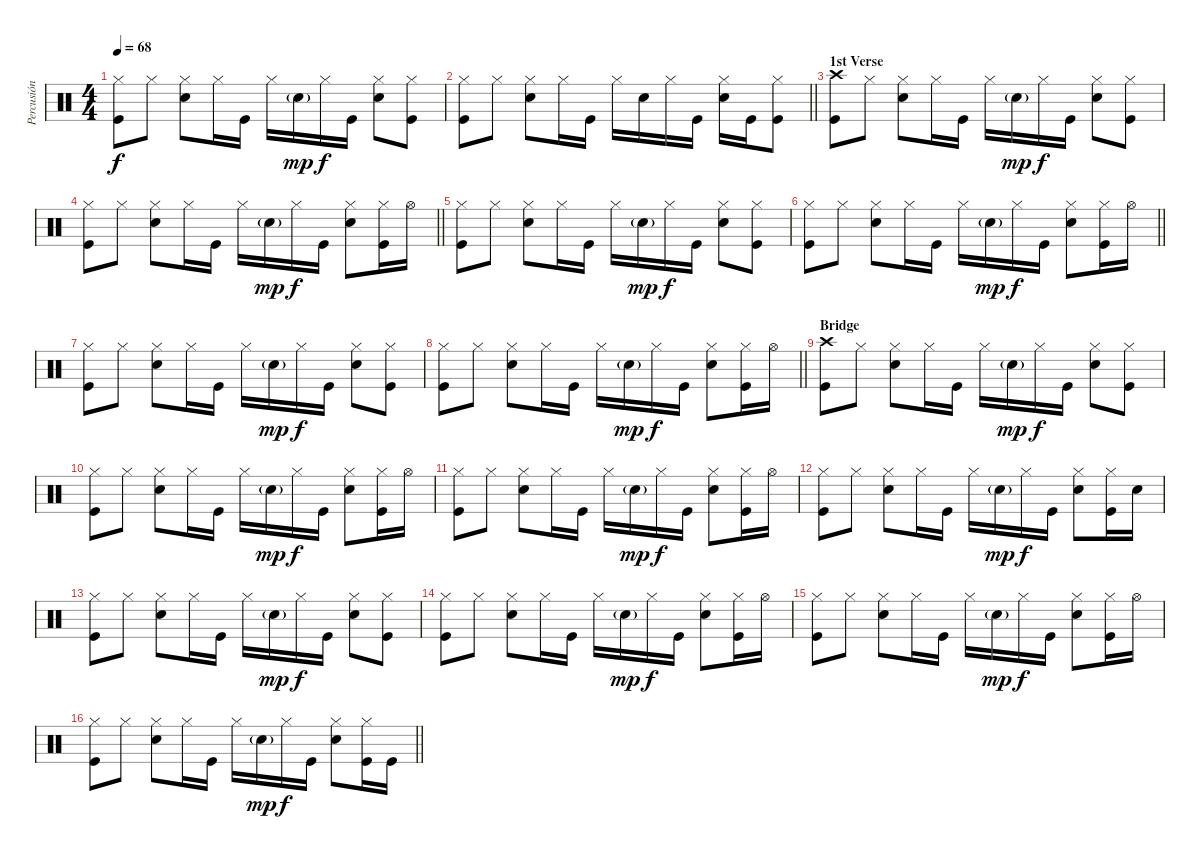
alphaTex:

\track ("Percusión" "Percusión") {instrument percussion}
\staff {score}
\articulation defaults
\ts (4 4)
\tempo 68
\clef neutral
\ks c
("Hi-Hat (closed)" "Kick (hit)").8{dy f} "Hi-Hat (closed)".8 ("Hi-Hat (closed)" "Snare (hit) 2").8 "Hi-Hat (closed)".16 "Kick (hit)".16 "Hi-Hat (closed)".16 "Snare (hit) 2"{g}.16{dy mp} "Hi-Hat (closed)".16{dy f} "Kick (hit)".16 ("Hi-Hat (closed)" "Snare (hit) 2").8 ("Hi-Hat (closed)" "Kick (hit)").8 |
\barLineRight lightlight
("Hi-Hat (closed)" "Kick (hit)").8 "Hi-Hat (closed)".8 ("Hi-Hat (closed)" "Snare (hit) 2").8 "Hi-Hat (closed)".16 "Kick (hit)".16 "Hi-Hat (closed)".16 "Snare (hit) 2".16 "Hi-Hat (closed)".16 "Kick (hit)".16 ("Hi-Hat (closed)" "Snare (hit) 2").16 "Kick (hit)".16 ("Hi-Hat (closed)" "Kick (hit)").8 |
\section ("" "1st Verse")
("Crash high (hit)" "Kick (hit)").8 "Hi-Hat (closed)".8 ("Hi-Hat (closed)" "Snare (hit) 2").8 "Hi-Hat (closed)".16 "Kick (hit)".16 "Hi-Hat (closed)".16 "Snare (hit) 2"{g}.16{dy mp} "Hi-Hat (closed)".16{dy f} "Kick (hit)".16 ("Hi-Hat (closed)" "Snare (hit) 2").8 ("Hi-Hat (closed)" "Kick (hit)").8 |
\barLineRight lightlight
("Hi-Hat (closed)" "Kick (hit)").8 "Hi-Hat (closed)".8 ("Hi-Hat (closed)" "Snare (hit) 2").8 "Hi-Hat (closed)".16 "Kick (hit)".16 "Hi-Hat (closed)".16 "Snare (hit) 2"{g}.16{dy mp} "Hi-Hat (closed)".16{dy f} "Kick (hit)".16 ("Hi-Hat (closed)" "Snare (hit) 2").8 ("Hi-Hat (closed)" "Kick (hit)").16 "Hi-Hat (open)".16 |
("Hi-Hat (closed)" "Kick (hit)").8 "Hi-Hat (closed)".8 ("Hi-Hat (closed)" "Snare (hit) 2").8 "Hi-Hat (closed)".16 "Kick (hit)".16 "Hi-Hat (closed)".16 "Snare (hit) 2"{g}.16{dy mp} "Hi-Hat (closed)".16{dy f} "Kick (hit)".16 ("Hi-Hat (closed)" "Snare (hit) 2").8 ("Hi-Hat (closed)" "Kick (hit)").8 |
\barLineRight lightlight
("Hi-Hat (closed)" "Kick (hit)").8 "Hi-Hat (closed)".8 ("Hi-Hat (closed)" "Snare (hit) 2").8 "Hi-Hat (closed)".16 "Kick (hit)".16 "Hi-Hat (closed)".16 "Snare (hit) 2"{g}.16{dy mp} "Hi-Hat (closed)".16{dy f} "Kick (hit)".16 ("Hi-Hat (closed)" "Snare (hit) 2").8 ("Hi-Hat (closed)" "Kick (hit)").16 "Hi-Hat (open)".16 |
("Hi-Hat (closed)" "Kick (hit)").8 "Hi-Hat (closed)".8 ("Hi-Hat (closed)" "Snare (hit) 2").8 "Hi-Hat (closed)".16 "Kick (hit)".16 "Hi-Hat (closed)".16 "Snare (hit) 2"{g}.16{dy mp} "Hi-Hat (closed)".16{dy f} "Kick (hit)".16 ("Hi-Hat (closed)" "Snare (hit) 2").8 ("Hi-Hat (closed)" "Kick (hit)").8 |
\barLineRight lightlight
("Hi-Hat (closed)" "Kick (hit)").8 "Hi-Hat (closed)".8 ("Hi-Hat (closed)" "Snare (hit) 2").8 "Hi-Hat (closed)".16 "Kick (hit)".16 "Hi-Hat (closed)".16 "Snare (hit) 2"{g}.16{dy mp} "Hi-Hat (closed)".16{dy f} "Kick (hit)".16 ("Hi-Hat (closed)" "Snare (hit) 2").8 ("Hi-Hat (closed)" "Kick (hit)").16 "Hi-Hat (open)".16 |
\section ("" "Bridge")
("Crash high (hit)" "Kick (hit)").8 "Hi-Hat (closed)".8 ("Hi-Hat (closed)" "Snare (hit) 2").8 "Hi-Hat (closed)".16 "Kick (hit)".16 "Hi-Hat (closed)".16 "Snare (hit) 2"{g}.16{dy mp} "Hi-Hat (closed)".16{dy f} "Kick (hit)".16 ("Hi-Hat (closed)" "Snare (hit) 2").8 ("Hi-Hat (closed)" "Kick (hit)").8 |
("Hi-Hat (closed)" "Kick (hit)").8 "Hi-Hat (closed)".8 ("Hi-Hat (closed)" "Snare (hit) 2").8 "Hi-Hat (closed)".16 "Kick (hit)".16 "Hi-Hat (closed)".16 "Snare (hit) 2"{g}.16{dy mp} "Hi-Hat (closed)".16{dy f} "Kick (hit)".16 ("Hi-Hat (closed)" "Snare (hit) 2").8 ("Hi-Hat (closed)" "Kick (hit)").16 "Hi-Hat (open)".16 |
("Hi-Hat (closed)" "Kick (hit)").8 "Hi-Hat (closed)".8 ("Hi-Hat (closed)" "Snare (hit) 2").8 "Hi-Hat (closed)".16 "Kick (hit)".16 "Hi-Hat (closed)".16 "Snare (hit) 2"{g}.16{dy mp} "Hi-Hat (closed)".16{dy f} "Kick (hit)".16 ("Hi-Hat (closed)" "Snare (hit) 2").8 ("Hi-Hat (closed)" "Kick (hit)").16 "Hi-Hat (open)".16 |
("Hi-Hat (closed)" "Kick (hit)").8 "Hi-Hat (closed)".8 ("Hi-Hat (closed)" "Snare (hit) 2").8 "Hi-Hat (closed)".16 "Kick (hit)".16 "Hi-Hat (closed)".16 "Snare (hit) 2"{g}.16{dy mp} "Hi-Hat (closed)".16{dy f} "Kick (hit)".16 ("Hi-Hat (closed)" "Snare (hit) 2").8 ("Hi-Hat (closed)" "Kick (hit)").16 "Snare (hit) 2".16 |
("Hi-Hat (closed)" "Kick (hit)").8 "Hi-Hat (closed)".8 ("Hi-Hat (closed)" "Snare (hit) 2").8 "Hi-Hat (closed)".16 "Kick (hit)".16 "Hi-Hat (closed)".16 "Snare (hit) 2"{g}.16{dy mp} "Hi-Hat (closed)".16{dy f} "Kick (hit)".16 ("Hi-Hat (closed)" "Snare (hit) 2").8 ("Hi-Hat (closed)" "Kick (hit)").8 |
("Hi-Hat (closed)" "Kick (hit)").8 "Hi-Hat (closed)".8 ("Hi-Hat (closed)" "Snare (hit) 2").8 "Hi-Hat (closed)".16 "Kick (hit)".16 "Hi-Hat (closed)".16 "Snare (hit) 2"{g}.16{dy mp} "Hi-Hat (closed)".16{dy f} "Kick (hit)".16 ("Hi-Hat (closed)" "Snare (hit) 2").8 ("Hi-Hat (closed)" "Kick (hit)").16 "Hi-Hat (open)".16 |
("Hi-Hat (closed)" "Kick (hit)").8 "Hi-Hat (closed)".8 ("Hi-Hat (closed)" "Snare (hit) 2").8 "Hi-Hat (closed)".16 "Kick (hit)".16 "Hi-Hat (closed)".16 "Snare (hit) 2"{g}.16{dy mp} "Hi-Hat (closed)".16{dy f} "Kick (hit)".16 ("Hi-Hat (closed)" "Snare (hit) 2").8 ("Hi-Hat (closed)" "Kick (hit)").16 "Hi-Hat (open)".16 |
\barLineRight lightlight
("Hi-Hat (closed)" "Kick (hit)").8 "Hi-Hat (closed)".8 ("Hi-Hat (closed)" "Snare (hit) 2").8 "Hi-Hat (closed)".16 "Kick (hit)".16 "Hi-Hat (closed)".16 "Snare (hit) 2"{g}.16{dy mp} "Hi-Hat (closed)".16{dy f} "Kick (hit)".16 ("Hi-Hat (closed)" "Snare (hit) 2").8 ("Hi-Hat (closed)" "Kick (hit)").16 "Kick (hit)".16
